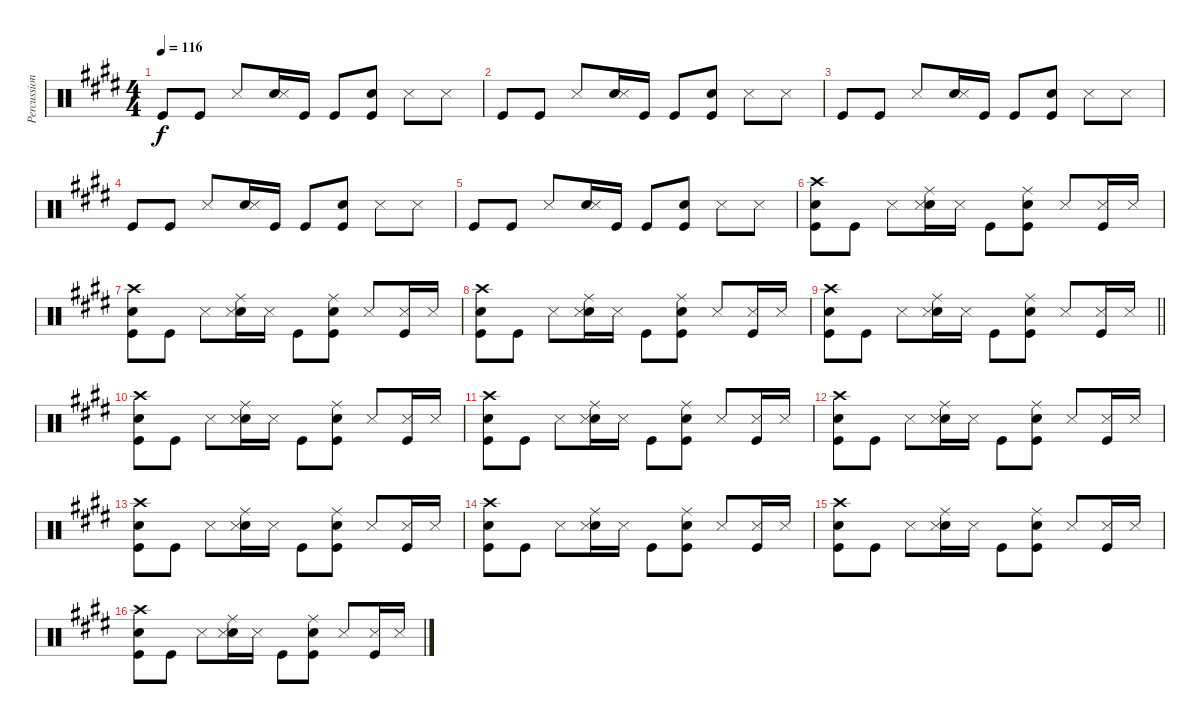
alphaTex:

\track ("Percussion" "Percussion") {instrument percussion}
\staff {score}
\articulation defaults
\ts (4 4)
\tempo 116
\clef neutral
\ks e "Kick (hit)".8{dy f} "Kick (hit)".8 "Snare (side stick) 3".8
("Electric Snare (hit)" "Snare (side stick) 3").16 "Kick (hit)".16 "Kick (hit)".8 ("Electric Snare (hit)" "Kick (hit)").8 "Snare (side stick) 3".8 "Snare (side stick) 3".8 |
"Kick (hit)".8 "Kick (hit)".8 "Snare (side stick) 3".8 ("Electric Snare (hit)" "Snare (side stick) 3").16 "Kick (hit)".16 "Kick (hit)".8 ("Electric Snare (hit)" "Kick (hit)").8 "Snare (side stick) 3".8 "Snare (side stick) 3".8 |
"Kick (hit)".8 "Kick (hit)".8 "Snare (side stick) 3".8 ("Electric Snare (hit)" "Snare (side stick) 3").16 "Kick (hit)".16 "Kick (hit)".8 ("Electric Snare (hit)" "Kick (hit)").8 "Snare (side stick) 3".8 "Snare (side stick) 3".8 |
"Kick (hit)".8 "Kick (hit)".8 "Snare (side stick) 3".8 ("Electric Snare (hit)" "Snare (side stick) 3").16 "Kick (hit)".16 "Kick (hit)".8 ("Electric Snare (hit)" "Kick (hit)").8 "Snare (side stick) 3".8 "Snare (side stick) 3".8 |
"Kick (hit)".8 "Kick (hit)".8 "Snare (side stick) 3".8 ("Electric Snare (hit)" "Snare (side stick) 3").16 "Kick (hit)".16 "Kick (hit)".8 ("Electric Snare (hit)" "Kick (hit)").8 "Snare (side stick) 3".8 "Snare (side stick) 3".8 |
("Crash high (hit)" "Electric Snare (hit)" "Kick (hit)").8 "Kick (hit)".8 "Snare (side stick) 3".8 ("Ride (middle)" "Electric Snare (hit)" "Snare (side stick) 3").16 "Snare (side stick) 3".16 "Kick (hit)".8 ("Ride (middle)" "Electric Snare (hit)" "Kick (hit)").8 "Snare (side stick) 3".8 ("Snare (side stick) 3" "Kick (hit)").16 "Snare (side stick) 3".16 |
("Crash high (hit)" "Electric Snare (hit)" "Kick (hit)").8 "Kick (hit)".8 "Snare (side stick) 3".8 ("Ride (middle)" "Electric Snare (hit)" "Snare (side stick) 3").16 "Snare (side stick) 3".16 "Kick (hit)".8 ("Ride (middle)" "Electric Snare (hit)" "Kick (hit)").8 "Snare (side stick) 3".8 ("Snare (side stick) 3" "Kick (hit)").16 "Snare (side stick) 3".16 |
("Crash high (hit)" "Electric Snare (hit)" "Kick (hit)").8 "Kick (hit)".8 "Snare (side stick) 3".8 ("Ride (middle)" "Electric Snare (hit)" "Snare (side stick) 3").16 "Snare (side stick) 3".16 "Kick (hit)".8 ("Ride (middle)" "Electric Snare (hit)" "Kick (hit)").8 "Snare (side stick) 3".8 ("Snare (side stick) 3" "Kick (hit)").16 "Snare (side stick) 3".16 |
\barLineRight lightlight
("Crash high (hit)" "Electric Snare (hit)" "Kick (hit)").8 "Kick (hit)".8 "Snare (side stick) 3".8 ("Ride (middle)" "Electric Snare (hit)" "Snare (side stick) 3").16 "Snare (side stick) 3".16 "Kick (hit)".8 ("Ride (middle)" "Electric Snare (hit)" "Kick (hit)").8 "Snare (side stick) 3".8 ("Snare (side stick) 3" "Kick (hit)").16 "Snare (side stick) 3".16 |
("Crash high (hit)" "Electric Snare (hit)" "Kick (hit)").8 "Kick (hit)".8 "Snare (side stick) 3".8 ("Ride (middle)" "Electric Snare (hit)" "Snare (side stick) 3").16 "Snare (side stick) 3".16 "Kick (hit)".8 ("Ride (middle)" "Electric Snare (hit)" "Kick (hit)").8 "Snare (side stick) 3".8 ("Snare (side stick) 3" "Kick (hit)").16 "Snare (side stick) 3".16 |
("Crash high (hit)" "Electric Snare (hit)" "Kick (hit)").8 "Kick (hit)".8 "Snare (side stick) 3".8 ("Ride (middle)" "Electric Snare (hit)" "Snare (side stick) 3").16 "Snare (side stick) 3".16 "Kick (hit)".8 ("Ride (middle)" "Electric Snare (hit)" "Kick (hit)").8 "Snare (side stick) 3".8 ("Snare (side stick) 3" "Kick (hit)").16 "Snare (side stick) 3".16 |
("Crash high (hit)" "Electric Snare (hit)" "Kick (hit)").8 "Kick (hit)".8 "Snare (side stick) 3".8 ("Ride (middle)" "Electric Snare (hit)" "Snare (side stick) 3").16 "Snare (side stick) 3".16 "Kick (hit)".8 ("Ride (middle)" "Electric Snare (hit)" "Kick (hit)").8 "Snare (side stick) 3".8 ("Snare (side stick) 3" "Kick (hit)").16 "Snare (side stick) 3".16 |
("Crash high (hit)" "Electric Snare (hit)" "Kick (hit)").8 "Kick (hit)".8 "Snare (side stick) 3".8 ("Ride (middle)" "Electric Snare (hit)" "Snare (side stick) 3").16 "Snare (side stick) 3".16 "Kick (hit)".8 ("Ride (middle)" "Electric Snare (hit)" "Kick (hit)").8 "Snare (side stick) 3".8 ("Snare (side stick) 3" "Kick (hit)").16 "Snare (side stick) 3".16 |
("Crash high (hit)" "Electric Snare (hit)" "Kick (hit)").8 "Kick (hit)".8 "Snare (side stick) 3".8 ("Ride (middle)" "Electric Snare (hit)" "Snare (side stick) 3").16 "Snare (side stick) 3".16 "Kick (hit)".8 ("Ride (middle)" "Electric Snare (hit)" "Kick (hit)").8 "Snare (side stick) 3".8 ("Snare (side stick) 3" "Kick (hit)").16 "Snare (side stick) 3".16 |
("Crash high (hit)" "Electric Snare (hit)" "Kick (hit)").8 "Kick (hit)".8 "Snare (side stick) 3".8 ("Ride (middle)" "Electric Snare (hit)" "Snare (side stick) 3").16 "Snare (side stick) 3".16 "Kick (hit)".8 ("Ride (middle)" "Electric Snare (hit)" "Kick (hit)").8 "Snare (side stick) 3".8 ("Snare (side stick) 3" "Kick (hit)").16 "Snare (side stick) 3".16 |
("Crash high (hit)" "Electric Snare (hit)" "Kick (hit)").8 "Kick (hit)".8 "Snare (side stick) 3".8 ("Ride (middle)" "Electric Snare (hit)" "Snare (side stick) 3").16 "Snare (side stick) 3".16 "Kick (hit)".8 ("Ride (middle)" "Electric Snare (hit)" "Kick (hit)").8 "Snare (side stick) 3".8 ("Snare (side stick) 3" "Kick (hit)").16 "Snare (side stick) 3".16
